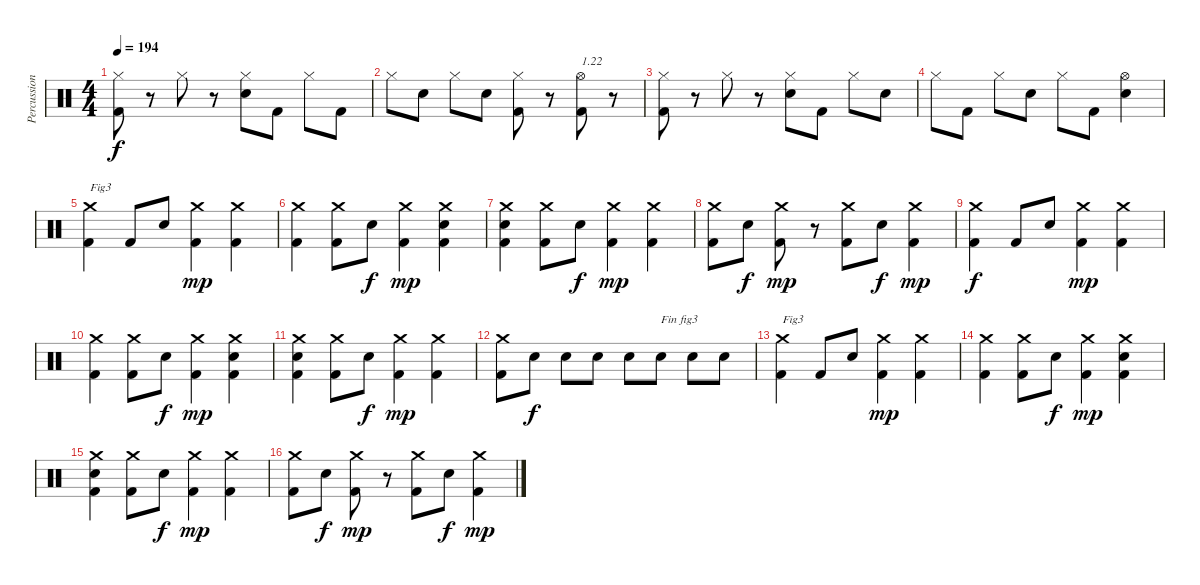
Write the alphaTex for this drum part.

\track ("Percussions" "Percussion") {instrument percussion}
\staff {score}
\articulation defaults
\ts (4 4)
\tempo 194
\clef neutral
\ks c
("Kick (hit) 2" "Hi-Hat (closed)").8{dy f} r.8 "Hi-Hat (closed)".8 r.8 ("Electric Snare (hit)" "Hi-Hat (closed)").8 "Kick (hit) 2".8 "Hi-Hat (closed)".8 "Kick (hit) 2".8 |
"Hi-Hat (closed)".8 "Electric Snare (hit)".8 "Hi-Hat (closed)".8 "Electric Snare (hit)".8 ("Kick (hit) 2" "Hi-Hat (closed)").8 r.8 ("Kick (hit) 2" "Hi-Hat (open)").8{txt "1.22"} r.8 |
("Kick (hit) 2" "Hi-Hat (closed)").8 r.8 "Hi-Hat (closed)".8 r.8 ("Electric Snare (hit)" "Hi-Hat (closed)").8 "Kick (hit) 2".8 "Hi-Hat (closed)".8 "Electric Snare (hit)".8 |
"Hi-Hat (closed)".8 "Kick (hit) 2".8 "Hi-Hat (closed)".8 "Electric Snare (hit)".8 "Hi-Hat (closed)".8 "Kick (hit) 2".8 ("Electric Snare (hit)" "Hi-Hat (open)").4 |
("Kick (hit) 2" "Crash medium (hit)").4{txt "Fig3"} "Kick (hit) 2".8 "Electric Snare (hit)".8 ("Kick (hit) 2" "Crash medium (hit)").4{dy mp} ("Kick (hit) 2" "Crash medium (hit)").4 |
("Kick (hit) 2" "Crash medium (hit)").4 ("Kick (hit) 2" "Crash medium (hit)").8 "Electric Snare (hit)".8{dy f} ("Kick (hit) 2" "Crash medium (hit)").4{dy mp} ("Kick (hit) 2" "Electric Snare (hit)" "Crash medium (hit)").4 |
("Kick (hit) 2" "Electric Snare (hit)" "Crash medium (hit)").4 ("Kick (hit) 2" "Crash medium (hit)").8 "Electric Snare (hit)".8{dy f} ("Kick (hit) 2" "Crash medium (hit)").4{dy mp} ("Kick (hit) 2" "Crash medium (hit)").4 |
("Kick (hit) 2" "Crash medium (hit)").8 "Electric Snare (hit)".8{dy f} ("Kick (hit) 2" "Crash medium (hit)").8{dy mp} r.8 ("Kick (hit) 2" "Crash medium (hit)").8 "Electric Snare (hit)".8{dy f} ("Kick (hit) 2" "Crash medium (hit)").4{dy mp} |
("Kick (hit) 2" "Crash medium (hit)").4{dy f} "Kick (hit) 2".8 "Electric Snare (hit)".8 ("Kick (hit) 2" "Crash medium (hit)").4{dy mp} ("Kick (hit) 2" "Crash medium (hit)").4 |
("Kick (hit) 2" "Crash medium (hit)").4 ("Kick (hit) 2" "Crash medium (hit)").8 "Electric Snare (hit)".8{dy f} ("Kick (hit) 2" "Crash medium (hit)").4{dy mp} ("Kick (hit) 2" "Electric Snare (hit)" "Crash medium (hit)").4 |
("Kick (hit) 2" "Electric Snare (hit)" "Crash medium (hit)").4 ("Kick (hit) 2" "Crash medium (hit)").8 "Electric Snare (hit)".8{dy f} ("Kick (hit) 2" "Crash medium (hit)").4{dy mp} ("Kick (hit) 2" "Crash medium (hit)").4 |
("Kick (hit) 2" "Crash medium (hit)").8 "Electric Snare (hit)".8{dy f} "Electric Snare (hit)".8 "Electric Snare (hit)".8 "Electric Snare (hit)".8 "Electric Snare (hit)".8{txt "Fin fig3"} "Electric Snare (hit)".8 "Electric Snare (hit)".8 |
("Kick (hit) 2" "Crash medium (hit)").4{txt "Fig3"} "Kick (hit) 2".8 "Electric Snare (hit)".8 ("Kick (hit) 2" "Crash medium (hit)").4{dy mp} ("Kick (hit) 2" "Crash medium (hit)").4 |
("Kick (hit) 2" "Crash medium (hit)").4 ("Kick (hit) 2" "Crash medium (hit)").8 "Electric Snare (hit)".8{dy f} ("Kick (hit) 2" "Crash medium (hit)").4{dy mp} ("Kick (hit) 2" "Electric Snare (hit)" "Crash medium (hit)").4 |
("Kick (hit) 2" "Electric Snare (hit)" "Crash medium (hit)").4 ("Kick (hit) 2" "Crash medium (hit)").8 "Electric Snare (hit)".8{dy f} ("Kick (hit) 2" "Crash medium (hit)").4{dy mp} ("Kick (hit) 2" "Crash medium (hit)").4 |
("Kick (hit) 2" "Crash medium (hit)").8 "Electric Snare (hit)".8{dy f} ("Kick (hit) 2" "Crash medium (hit)").8{dy mp} r.8 ("Kick (hit) 2" "Crash medium (hit)").8 "Electric Snare (hit)".8{dy f} ("Kick (hit) 2" "Crash medium (hit)").4{dy mp}
